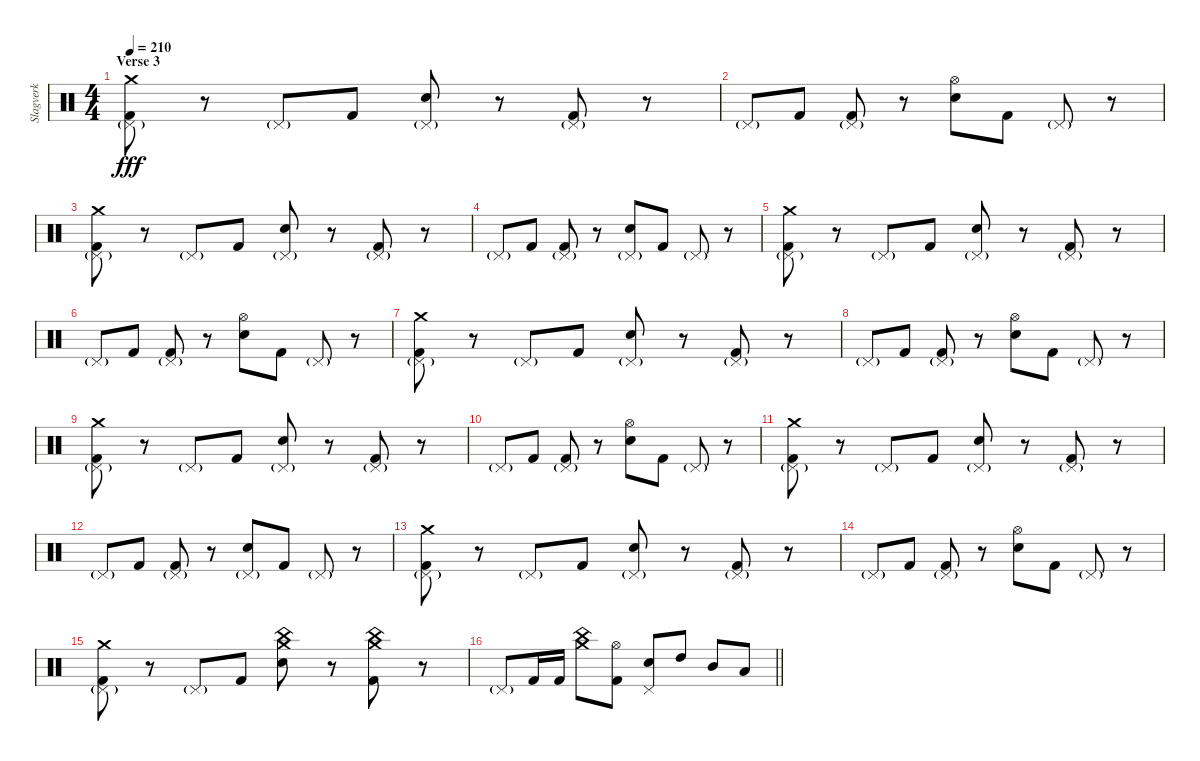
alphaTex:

\track ("Slagverk" "Slagverk") {instrument percussion}
\staff {score}
\articulation defaults
\ts (4 4)
\section ("" "Verse 3")
\tempo 210
\clef neutral
\ks c
("Crash medium (hit)" "Pedal Hi-Hat (hit)"{g} "Kick (hit) 2").8{dy fff} r.8 "Pedal Hi-Hat (hit)"{g}.8 "Kick (hit) 2".8 ("Pedal Hi-Hat (hit)"{g} "Electric Snare (hit)").8 r.8 ("Pedal Hi-Hat (hit)"{g} "Kick (hit) 2").8 r.8 |
"Pedal Hi-Hat (hit)"{g}.8 "Kick (hit) 2".8 ("Pedal Hi-Hat (hit)"{g} "Kick (hit) 2").8 r.8 ("Hi-Hat (open)" "Electric Snare (hit)").8 "Kick (hit) 2".8 "Pedal Hi-Hat (hit)"{g}.8 r.8 |
("Crash medium (hit)" "Pedal Hi-Hat (hit)"{g} "Kick (hit) 2").8 r.8 "Pedal Hi-Hat (hit)"{g}.8 "Kick (hit) 2".8 ("Pedal Hi-Hat (hit)"{g} "Electric Snare (hit)").8 r.8 ("Pedal Hi-Hat (hit)"{g} "Kick (hit) 2").8 r.8 |
"Pedal Hi-Hat (hit)"{g}.8 "Kick (hit) 2".8 ("Pedal Hi-Hat (hit)"{g} "Kick (hit) 2").8 r.8 ("Pedal Hi-Hat (hit)"{g} "Electric Snare (hit)").8 "Kick (hit) 2".8 "Pedal Hi-Hat (hit)"{g}.8 r.8 |
("Crash medium (hit)" "Pedal Hi-Hat (hit)"{g} "Kick (hit) 2").8 r.8 "Pedal Hi-Hat (hit)"{g}.8 "Kick (hit) 2".8 ("Pedal Hi-Hat (hit)"{g} "Electric Snare (hit)").8 r.8 ("Pedal Hi-Hat (hit)"{g} "Kick (hit) 2").8 r.8 |
"Pedal Hi-Hat (hit)"{g}.8 "Kick (hit) 2".8 ("Pedal Hi-Hat (hit)"{g} "Kick (hit) 2").8 r.8 ("Hi-Hat (open)" "Electric Snare (hit)").8 "Kick (hit) 2".8 "Pedal Hi-Hat (hit)"{g}.8 r.8 |
("Crash medium (hit)" "Pedal Hi-Hat (hit)"{g} "Kick (hit) 2").8 r.8 "Pedal Hi-Hat (hit)"{g}.8 "Kick (hit) 2".8 ("Pedal Hi-Hat (hit)"{g} "Electric Snare (hit)").8 r.8 ("Pedal Hi-Hat (hit)"{g} "Kick (hit) 2").8 r.8 |
"Pedal Hi-Hat (hit)"{g}.8 "Kick (hit) 2".8 ("Pedal Hi-Hat (hit)"{g} "Kick (hit) 2").8 r.8 ("Hi-Hat (open)" "Electric Snare (hit)").8 "Kick (hit) 2".8 "Pedal Hi-Hat (hit)"{g}.8 r.8 |
("Crash medium (hit)" "Pedal Hi-Hat (hit)"{g} "Kick (hit) 2").8 r.8 "Pedal Hi-Hat (hit)"{g}.8 "Kick (hit) 2".8 ("Pedal Hi-Hat (hit)"{g} "Electric Snare (hit)").8 r.8 ("Pedal Hi-Hat (hit)"{g} "Kick (hit) 2").8 r.8 |
"Pedal Hi-Hat (hit)"{g}.8 "Kick (hit) 2".8 ("Pedal Hi-Hat (hit)"{g} "Kick (hit) 2").8 r.8 ("Hi-Hat (open)" "Electric Snare (hit)").8 "Kick (hit) 2".8 "Pedal Hi-Hat (hit)"{g}.8 r.8 |
("Crash medium (hit)" "Pedal Hi-Hat (hit)"{g} "Kick (hit) 2").8 r.8 "Pedal Hi-Hat (hit)"{g}.8 "Kick (hit) 2".8 ("Pedal Hi-Hat (hit)"{g} "Electric Snare (hit)").8 r.8 ("Pedal Hi-Hat (hit)"{g} "Kick (hit) 2").8 r.8 |
"Pedal Hi-Hat (hit)"{g}.8 "Kick (hit) 2".8 ("Pedal Hi-Hat (hit)"{g} "Kick (hit) 2").8 r.8 ("Pedal Hi-Hat (hit)"{g} "Electric Snare (hit)").8 "Kick (hit) 2".8 "Pedal Hi-Hat (hit)"{g}.8 r.8 |
("Crash medium (hit)" "Pedal Hi-Hat (hit)"{g} "Kick (hit) 2").8 r.8 "Pedal Hi-Hat (hit)"{g}.8 "Kick (hit) 2".8 ("Pedal Hi-Hat (hit)"{g} "Electric Snare (hit)").8 r.8 ("Pedal Hi-Hat (hit)"{g} "Kick (hit) 2").8 r.8 |
"Pedal Hi-Hat (hit)"{g}.8 "Kick (hit) 2".8 ("Pedal Hi-Hat (hit)"{g} "Kick (hit) 2").8 r.8 ("Hi-Hat (open)" "Electric Snare (hit)").8 "Kick (hit) 2".8 "Pedal Hi-Hat (hit)"{g}.8 r.8 |
("Crash medium (hit)" "Pedal Hi-Hat (hit)"{g} "Kick (hit) 2").8 r.8 "Pedal Hi-Hat (hit)"{g}.8 "Kick (hit) 2".8 ("China (hit)" "Crash medium (hit)" "Electric Snare (hit)").8 r.8 ("China (hit)" "Crash medium (hit)" "Kick (hit) 2").8 r.8 |
\barLineRight lightlight "Pedal Hi-Hat (hit)"{g}.8 "Kick (hit) 2".16 "Kick (hit) 2".16
("China (hit)" "Crash medium (hit)").8 ("Hi-Hat (open)" "Kick (hit) 2").8 ("Pedal Hi-Hat (hit)" "Electric Snare (hit)").8 "High Tom (hit)".8 "Mid Tom (hit)".8 "Low Tom (hit)".8
